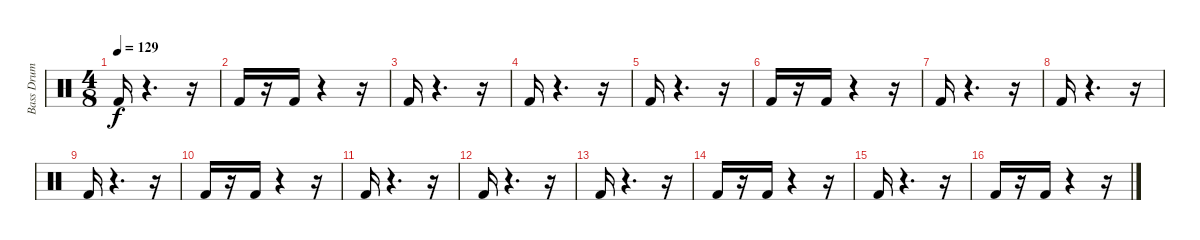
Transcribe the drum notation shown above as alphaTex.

\track ("Bass Drum" "Bass Drum") {instrument percussion}
\staff {score}
\articulation defaults
\ts (4 8)
\tempo 129
\clef neutral
\ks c "Kick (hit) 2".16{dy f}
r.4{d} r.16 |
"Kick (hit) 2".16 r.16 "Kick (hit) 2".16 r.4 r.16 |
"Kick (hit) 2".16 r.4{d} r.16 |
"Kick (hit) 2".16 r.4{d} r.16 |
"Kick (hit) 2".16 r.4{d} r.16 |
"Kick (hit) 2".16 r.16 "Kick (hit) 2".16 r.4 r.16 |
"Kick (hit) 2".16 r.4{d} r.16 |
"Kick (hit) 2".16 r.4{d} r.16 |
"Kick (hit) 2".16 r.4{d} r.16 |
"Kick (hit) 2".16 r.16 "Kick (hit) 2".16 r.4 r.16 |
"Kick (hit) 2".16 r.4{d} r.16 |
"Kick (hit) 2".16 r.4{d} r.16 |
"Kick (hit) 2".16 r.4{d} r.16 |
"Kick (hit) 2".16 r.16 "Kick (hit) 2".16 r.4 r.16 |
"Kick (hit) 2".16 r.4{d} r.16 |
"Kick (hit) 2".16 r.16 "Kick (hit) 2".16 r.4 r.16
